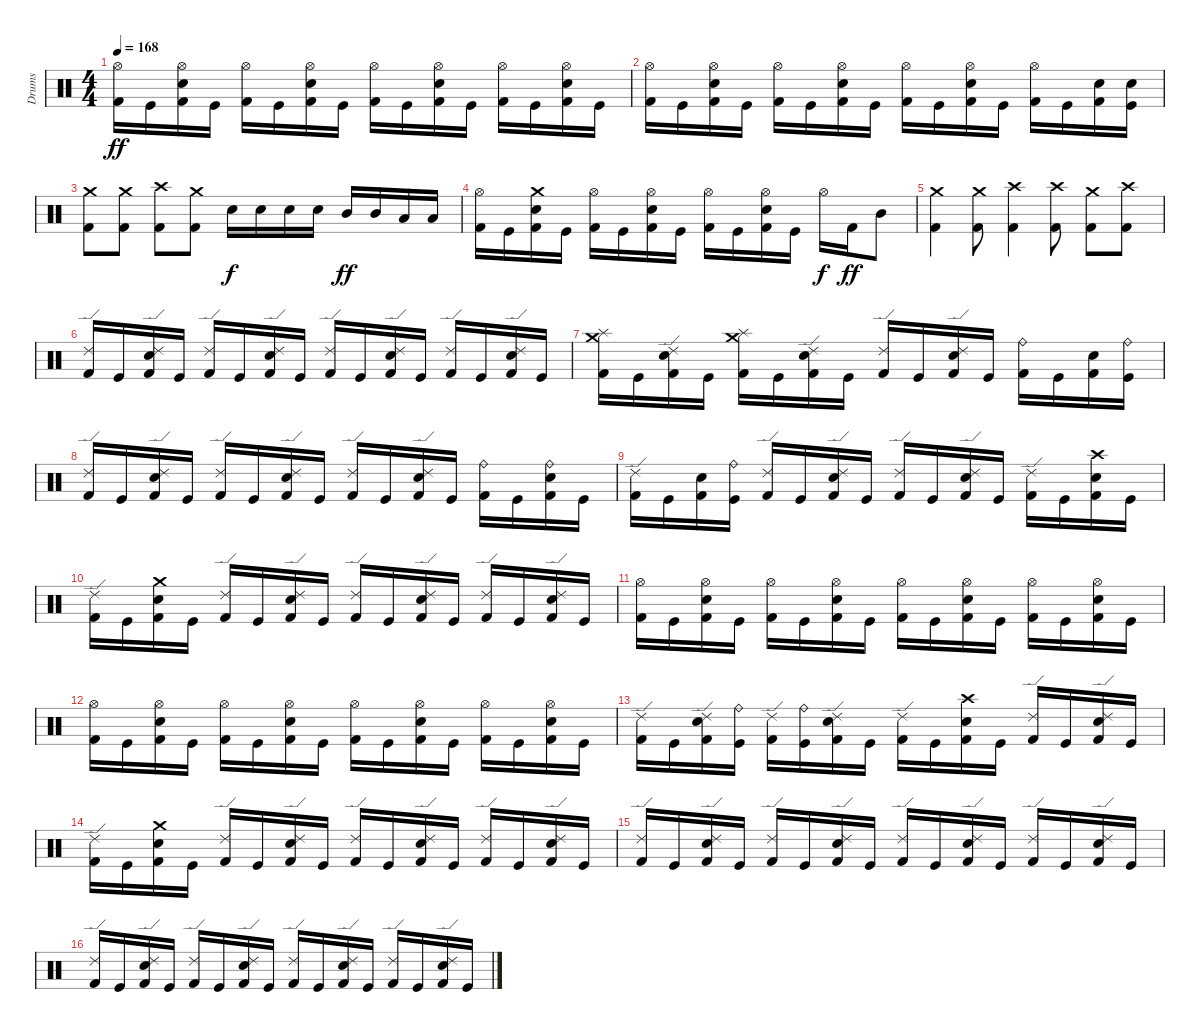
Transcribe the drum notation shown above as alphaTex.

\track ("Drums" "Drums") {instrument percussion}
\staff {score}
\articulation defaults
\ts (4 4)
\tempo 168
\clef neutral
\ks c
("Hi-Hat (open)" "Kick (hit) 2").16{dy ff} "Kick (hit)".16 ("Hi-Hat (open)" "Electric Snare (hit)" "Kick (hit) 2").16 "Kick (hit)".16 ("Hi-Hat (open)" "Kick (hit) 2").16 "Kick (hit)".16 ("Hi-Hat (open)" "Electric Snare (hit)" "Kick (hit) 2").16 "Kick (hit)".16 ("Hi-Hat (open)" "Kick (hit) 2").16 "Kick (hit)".16 ("Hi-Hat (open)" "Electric Snare (hit)" "Kick (hit) 2").16 "Kick (hit)".16 ("Hi-Hat (open)" "Kick (hit) 2").16 "Kick (hit)".16 ("Hi-Hat (open)" "Electric Snare (hit)" "Kick (hit) 2").16 "Kick (hit)".16 |
("Hi-Hat (open)" "Kick (hit) 2").16 "Kick (hit)".16 ("Hi-Hat (open)" "Electric Snare (hit)" "Kick (hit) 2").16 "Kick (hit)".16 ("Hi-Hat (open)" "Kick (hit) 2").16 "Kick (hit)".16 ("Hi-Hat (open)" "Electric Snare (hit)" "Kick (hit) 2").16 "Kick (hit)".16 ("Hi-Hat (open)" "Kick (hit) 2").16 "Kick (hit)".16 ("Hi-Hat (open)" "Electric Snare (hit)" "Kick (hit) 2").16 "Kick (hit)".16 ("Hi-Hat (open)" "Kick (hit) 2").16 "Kick (hit)".16 ("Electric Snare (hit)" "Kick (hit) 2").16 ("Electric Snare (hit)" "Kick (hit)").16 |
("Crash medium (hit)" "Kick (hit) 2").8 ("Crash medium (hit)" "Kick (hit) 2").8 ("Crash high (hit)" "Kick (hit) 2").8 ("Crash medium (hit)" "Kick (hit) 2").8 "Electric Snare (hit)".16{dy f} "Electric Snare (hit)".16 "Electric Snare (hit)".16 "Electric Snare (hit)".16 "Mid Tom (hit)".16{dy ff} "Mid Tom (hit)".16 "Low Tom (hit)".16 "Low Tom (hit)".16 |
("Hi-Hat (open)" "Kick (hit) 2").16 "Kick (hit)".16 ("Crash medium (hit)" "Electric Snare (hit)" "Kick (hit) 2").16 "Kick (hit)".16 ("Hi-Hat (open)" "Kick (hit) 2").16 "Kick (hit)".16 ("Hi-Hat (open)" "Electric Snare (hit)" "Kick (hit) 2").16 "Kick (hit)".16 ("Hi-Hat (open)" "Kick (hit) 2").16 "Kick (hit)".16 ("Hi-Hat (open)" "Electric Snare (hit)" "Kick (hit) 2").16 "Kick (hit)".16 "Hi-Hat (open)".16{dy f} "Kick (hit) 2".16{dy ff} "Mid Tom (hit)".8 |
("Crash medium (hit)" "Kick (hit) 2").4 ("Crash medium (hit)" "Kick (hit) 2").8 ("Crash high (hit)" "Kick (hit) 2").4 ("Crash high (hit)" "Kick (hit) 2").8 ("Crash medium (hit)" "Kick (hit) 2").8 ("Crash high (hit)" "Kick (hit) 2").8 |
("Ride (edge) 2" "Kick (hit) 2").16 "Kick (hit)".16 ("Ride (edge) 2" "Electric Snare (hit)" "Kick (hit) 2").16 "Kick (hit)".16 ("Ride (edge) 2" "Kick (hit) 2").16 "Kick (hit)".16 ("Ride (edge) 2" "Electric Snare (hit)" "Kick (hit) 2").16 "Kick (hit)".16 ("Ride (edge) 2" "Kick (hit) 2").16 "Kick (hit)".16 ("Ride (edge) 2" "Electric Snare (hit)" "Kick (hit) 2").16 "Kick (hit)".16 ("Ride (edge) 2" "Kick (hit) 2").16 "Kick (hit)".16 ("Ride (edge) 2" "Electric Snare (hit)" "Kick (hit) 2").16 "Kick (hit)".16 |
("Crash medium (hit)" "Splash (hit)" "Kick (hit) 2").16 "Kick (hit)".16 ("Ride (edge) 2" "Electric Snare (hit)" "Kick (hit) 2").16 "Kick (hit)".16 ("Crash medium (hit)" "Splash (hit)" "Kick (hit) 2").16 "Kick (hit)".16 ("Ride (edge) 2" "Electric Snare (hit)" "Kick (hit) 2").16 "Kick (hit)".16 ("Ride (edge) 2" "Kick (hit) 2").16 "Kick (hit)".16 ("Ride (edge) 2" "Electric Snare (hit)" "Kick (hit) 2").16 "Kick (hit)".16 ("Ride (bell)" "Kick (hit) 2").16 "Kick (hit)".16 ("Electric Snare (hit)" "Kick (hit) 2").16 ("Ride (bell)" "Kick (hit)").16 |
("Ride (edge) 2" "Kick (hit) 2").16 "Kick (hit)".16 ("Ride (edge) 2" "Electric Snare (hit)" "Kick (hit) 2").16 "Kick (hit)".16 ("Ride (edge) 2" "Kick (hit) 2").16 "Kick (hit)".16 ("Ride (edge) 2" "Electric Snare (hit)" "Kick (hit) 2").16 "Kick (hit)".16 ("Ride (edge) 2" "Kick (hit) 2").16 "Kick (hit)".16 ("Ride (edge) 2" "Electric Snare (hit)" "Kick (hit) 2").16 "Kick (hit)".16 ("Ride (bell)" "Kick (hit) 2").16 "Kick (hit)".16 ("Ride (bell)" "Electric Snare (hit)" "Kick (hit) 2").16 "Kick (hit)".16 |
("Ride (edge) 2" "Kick (hit) 2").16 "Kick (hit)".16 ("Electric Snare (hit)" "Kick (hit) 2").16 ("Ride (bell)" "Kick (hit)").16 ("Ride (edge) 2" "Kick (hit) 2").16 "Kick (hit)".16 ("Ride (edge) 2" "Electric Snare (hit)" "Kick (hit) 2").16 "Kick (hit)".16 ("Ride (edge) 2" "Kick (hit) 2").16 "Kick (hit)".16 ("Ride (edge) 2" "Electric Snare (hit)" "Kick (hit) 2").16 "Kick (hit)".16 ("Ride (edge) 2" "Kick (hit) 2").16 "Kick (hit)".16 ("Crash high (hit)" "Electric Snare (hit)" "Kick (hit) 2").16 "Kick (hit)".16 |
("Ride (edge) 2" "Kick (hit) 2").16 "Kick (hit)".16 ("Crash medium (hit)" "Electric Snare (hit)" "Kick (hit) 2").16 "Kick (hit)".16 ("Ride (edge) 2" "Kick (hit) 2").16 "Kick (hit)".16 ("Ride (edge) 2" "Electric Snare (hit)" "Kick (hit) 2").16 "Kick (hit)".16 ("Ride (edge) 2" "Kick (hit) 2").16 "Kick (hit)".16 ("Ride (edge) 2" "Electric Snare (hit)" "Kick (hit) 2").16 "Kick (hit)".16 ("Ride (edge) 2" "Kick (hit) 2").16 "Kick (hit)".16 ("Ride (edge) 2" "Electric Snare (hit)" "Kick (hit) 2").16 "Kick (hit)".16 |
("Hi-Hat (open)" "Kick (hit) 2").16 "Kick (hit)".16 ("Hi-Hat (open)" "Electric Snare (hit)" "Kick (hit) 2").16 "Kick (hit)".16 ("Hi-Hat (open)" "Kick (hit) 2").16 "Kick (hit)".16 ("Hi-Hat (open)" "Electric Snare (hit)" "Kick (hit) 2").16 "Kick (hit)".16 ("Hi-Hat (open)" "Kick (hit) 2").16 "Kick (hit)".16 ("Hi-Hat (open)" "Electric Snare (hit)" "Kick (hit) 2").16 "Kick (hit)".16 ("Hi-Hat (open)" "Kick (hit) 2").16 "Kick (hit)".16 ("Hi-Hat (open)" "Electric Snare (hit)" "Kick (hit) 2").16 "Kick (hit)".16 |
("Hi-Hat (open)" "Kick (hit) 2").16 "Kick (hit)".16 ("Hi-Hat (open)" "Electric Snare (hit)" "Kick (hit) 2").16 "Kick (hit)".16 ("Hi-Hat (open)" "Kick (hit) 2").16 "Kick (hit)".16 ("Hi-Hat (open)" "Electric Snare (hit)" "Kick (hit) 2").16 "Kick (hit)".16 ("Hi-Hat (open)" "Kick (hit) 2").16 "Kick (hit)".16 ("Hi-Hat (open)" "Electric Snare (hit)" "Kick (hit) 2").16 "Kick (hit)".16 ("Hi-Hat (open)" "Kick (hit) 2").16 "Kick (hit)".16 ("Hi-Hat (open)" "Electric Snare (hit)" "Kick (hit) 2").16 "Kick (hit)".16 |
("Ride (edge) 2" "Kick (hit) 2").16 "Kick (hit)".16 ("Ride (edge) 2" "Electric Snare (hit)" "Kick (hit) 2").16 ("Ride (bell)" "Kick (hit)").16 ("Ride (edge) 2" "Kick (hit) 2").16 ("Ride (bell)" "Kick (hit)").16 ("Ride (edge) 2" "Electric Snare (hit)" "Kick (hit) 2").16 "Kick (hit)".16 ("Ride (edge) 2" "Kick (hit) 2").16 "Kick (hit)".16 ("Crash high (hit)" "Electric Snare (hit)" "Kick (hit) 2").16 "Kick (hit)".16 ("Ride (edge) 2" "Kick (hit) 2").16 "Kick (hit)".16 ("Ride (edge) 2" "Electric Snare (hit)" "Kick (hit) 2").16 "Kick (hit)".16 |
("Ride (edge) 2" "Kick (hit) 2").16 "Kick (hit)".16 ("Crash medium (hit)" "Electric Snare (hit)" "Kick (hit) 2").16 "Kick (hit)".16 ("Ride (edge) 2" "Kick (hit) 2").16 "Kick (hit)".16 ("Ride (edge) 2" "Electric Snare (hit)" "Kick (hit) 2").16 "Kick (hit)".16 ("Ride (edge) 2" "Kick (hit) 2").16 "Kick (hit)".16 ("Ride (edge) 2" "Electric Snare (hit)" "Kick (hit) 2").16 "Kick (hit)".16 ("Ride (edge) 2" "Kick (hit) 2").16 "Kick (hit)".16 ("Ride (edge) 2" "Electric Snare (hit)" "Kick (hit) 2").16 "Kick (hit)".16 |
("Ride (edge) 2" "Kick (hit) 2").16 "Kick (hit)".16 ("Ride (edge) 2" "Electric Snare (hit)" "Kick (hit) 2").16 "Kick (hit)".16 ("Ride (edge) 2" "Kick (hit) 2").16 "Kick (hit)".16 ("Ride (edge) 2" "Electric Snare (hit)" "Kick (hit) 2").16 "Kick (hit)".16 ("Ride (edge) 2" "Kick (hit) 2").16 "Kick (hit)".16 ("Ride (edge) 2" "Electric Snare (hit)" "Kick (hit) 2").16 "Kick (hit)".16 ("Ride (edge) 2" "Kick (hit) 2").16 "Kick (hit)".16 ("Ride (edge) 2" "Electric Snare (hit)" "Kick (hit) 2").16 "Kick (hit)".16 |
("Ride (edge) 2" "Kick (hit) 2").16 "Kick (hit)".16 ("Ride (edge) 2" "Electric Snare (hit)" "Kick (hit) 2").16 "Kick (hit)".16 ("Ride (edge) 2" "Kick (hit) 2").16 "Kick (hit)".16 ("Ride (edge) 2" "Electric Snare (hit)" "Kick (hit) 2").16 "Kick (hit)".16 ("Ride (edge) 2" "Kick (hit) 2").16 "Kick (hit)".16 ("Ride (edge) 2" "Electric Snare (hit)" "Kick (hit) 2").16 "Kick (hit)".16 ("Ride (edge) 2" "Kick (hit) 2").16 "Kick (hit)".16 ("Ride (edge) 2" "Electric Snare (hit)" "Kick (hit) 2").16 "Kick (hit)".16
